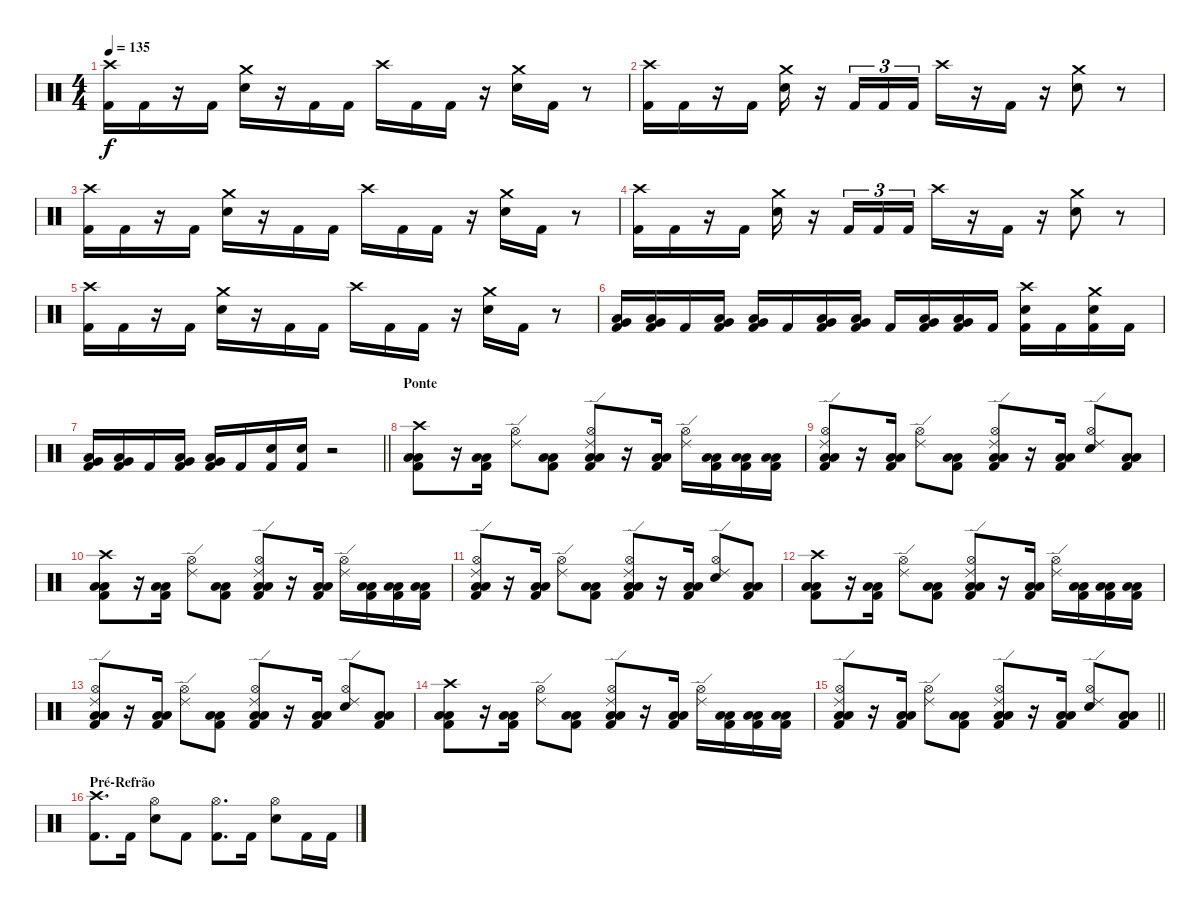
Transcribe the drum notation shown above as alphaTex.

\track "" {instrument percussion}
\staff {score}
\articulation defaults
\ts (4 4)
\tempo 135
\clef neutral
\ks c
("Crash high (hit)" "Kick (hit) 2").16{dy f} "Kick (hit) 2".16 r.16 "Kick (hit) 2".16 ("Crash medium (hit)" "Electric Snare (hit)").16 r.16 "Kick (hit) 2".16 "Kick (hit) 2".16 "Crash high (hit)".16 "Kick (hit) 2".16 "Kick (hit) 2".16 r.16 ("Crash medium (hit)" "Electric Snare (hit)").16 "Kick (hit) 2".16 r.8 |
("Crash high (hit)" "Kick (hit) 2").16 "Kick (hit) 2".16 r.16 "Kick (hit) 2".16 ("Crash medium (hit)" "Electric Snare (hit)").16 r.16 "Kick (hit) 2".16{tu (3 2)} "Kick (hit) 2".16{tu (3 2)} "Kick (hit) 2".16{tu (3 2)} "Crash high (hit)".16 r.16 "Kick (hit) 2".16 r.16 ("Crash medium (hit)" "Electric Snare (hit)").8 r.8 |
("Crash high (hit)" "Kick (hit) 2").16 "Kick (hit) 2".16 r.16 "Kick (hit) 2".16 ("Crash medium (hit)" "Electric Snare (hit)").16 r.16 "Kick (hit) 2".16 "Kick (hit) 2".16 "Crash high (hit)".16 "Kick (hit) 2".16 "Kick (hit) 2".16 r.16 ("Crash medium (hit)" "Electric Snare (hit)").16 "Kick (hit) 2".16 r.8 |
("Crash high (hit)" "Kick (hit) 2").16 "Kick (hit) 2".16 r.16 "Kick (hit) 2".16 ("Crash medium (hit)" "Electric Snare (hit)").16 r.16 "Kick (hit) 2".16{tu (3 2)} "Kick (hit) 2".16{tu (3 2)} "Kick (hit) 2".16{tu (3 2)} "Crash high (hit)".16 r.16 "Kick (hit) 2".16 r.16 ("Crash medium (hit)" "Electric Snare (hit)").8 r.8 |
("Crash high (hit)" "Kick (hit) 2").16 "Kick (hit) 2".16 r.16 "Kick (hit) 2".16 ("Crash medium (hit)" "Electric Snare (hit)").16 r.16 "Kick (hit) 2".16 "Kick (hit) 2".16 "Crash high (hit)".16 "Kick (hit) 2".16 "Kick (hit) 2".16 r.16 ("Crash medium (hit)" "Electric Snare (hit)").16 "Kick (hit) 2".16 r.8 |
("Very Low Tom (hit)" "Low Floor Tom (hit)" "Kick (hit) 2").16 ("Very Low Tom (hit)" "Low Floor Tom (hit)" "Kick (hit) 2").16 "Kick (hit) 2".16 ("Very Low Tom (hit)" "Low Floor Tom (hit)" "Kick (hit) 2").16 ("Very Low Tom (hit)" "Low Floor Tom (hit)" "Kick (hit) 2").16 "Kick (hit) 2".16 ("Very Low Tom (hit)" "Low Floor Tom (hit)" "Kick (hit) 2").16 ("Very Low Tom (hit)" "Low Floor Tom (hit)" "Kick (hit) 2").16 "Kick (hit) 2".16 ("Very Low Tom (hit)" "Low Floor Tom (hit)" "Kick (hit) 2").16 ("Very Low Tom (hit)" "Low Floor Tom (hit)" "Kick (hit) 2").16 "Kick (hit) 2".16 ("Crash high (hit)" "Electric Snare (hit)" "Kick (hit) 2").16 "Kick (hit) 2".16 ("Crash medium (hit)" "Electric Snare (hit)" "Kick (hit) 2").16 "Kick (hit) 2".16 |
\barLineRight lightlight
("Very Low Tom (hit)" "Low Floor Tom (hit)" "Kick (hit) 2").16 ("Very Low Tom (hit)" "Low Floor Tom (hit)" "Kick (hit) 2").16 "Kick (hit) 2".16 ("Very Low Tom (hit)" "Low Floor Tom (hit)" "Kick (hit) 2").16 ("Very Low Tom (hit)" "Low Floor Tom (hit)" "Kick (hit) 2").16 "Kick (hit) 2".16 ("Electric Snare (hit)" "Kick (hit) 2").16 ("Electric Snare (hit)" "Kick (hit) 2").16 r.2 |
\section ("" "Ponte")
("Crash high (hit)" "Low Floor Tom (hit)" "Low Tom (hit)" "Kick (hit) 2").8 r.16 ("Low Floor Tom (hit)" "Low Tom (hit)" "Kick (hit) 2").16 ("Hi-Hat (open)" "Ride (edge) 2").8 ("Low Floor Tom (hit)" "Low Tom (hit)" "Kick (hit) 2").8 ("Hi-Hat (open)" "Ride (edge) 2" "Low Floor Tom (hit)" "Low Tom (hit)" "Kick (hit) 2").8 r.16 ("Low Floor Tom (hit)" "Low Tom (hit)" "Kick (hit) 2").16 ("Hi-Hat (open)" "Ride (edge) 2").16 ("Low Floor Tom (hit)" "Low Tom (hit)" "Kick (hit) 2").16 ("Low Floor Tom (hit)" "Low Tom (hit)" "Kick (hit) 2").16 ("Low Floor Tom (hit)" "Low Tom (hit)" "Kick (hit) 2").16 |
("Hi-Hat (open)" "Ride (edge) 2" "Low Floor Tom (hit)" "Low Tom (hit)" "Kick (hit) 2").8 r.16 ("Low Floor Tom (hit)" "Low Tom (hit)" "Kick (hit) 2").16 ("Hi-Hat (open)" "Ride (edge) 2").8 ("Low Floor Tom (hit)" "Low Tom (hit)" "Kick (hit) 2").8 ("Hi-Hat (open)" "Ride (edge) 2" "Low Floor Tom (hit)" "Low Tom (hit)" "Kick (hit) 2").8 r.16 ("Low Floor Tom (hit)" "Low Tom (hit)" "Kick (hit) 2").16 ("Hi-Hat (open)" "Ride (edge) 2" "Electric Snare (hit)").8 ("Low Floor Tom (hit)" "Low Tom (hit)" "Kick (hit) 2").8 |
("Crash high (hit)" "Low Floor Tom (hit)" "Low Tom (hit)" "Kick (hit) 2").8 r.16 ("Low Floor Tom (hit)" "Low Tom (hit)" "Kick (hit) 2").16 ("Hi-Hat (open)" "Ride (edge) 2").8 ("Low Floor Tom (hit)" "Low Tom (hit)" "Kick (hit) 2").8 ("Hi-Hat (open)" "Ride (edge) 2" "Low Floor Tom (hit)" "Low Tom (hit)" "Kick (hit) 2").8 r.16 ("Low Floor Tom (hit)" "Low Tom (hit)" "Kick (hit) 2").16 ("Hi-Hat (open)" "Ride (edge) 2").16 ("Low Floor Tom (hit)" "Low Tom (hit)" "Kick (hit) 2").16 ("Low Floor Tom (hit)" "Low Tom (hit)" "Kick (hit) 2").16 ("Low Floor Tom (hit)" "Low Tom (hit)" "Kick (hit) 2").16 |
("Hi-Hat (open)" "Ride (edge) 2" "Low Floor Tom (hit)" "Low Tom (hit)" "Kick (hit) 2").8 r.16 ("Low Floor Tom (hit)" "Low Tom (hit)" "Kick (hit) 2").16 ("Hi-Hat (open)" "Ride (edge) 2").8 ("Low Floor Tom (hit)" "Low Tom (hit)" "Kick (hit) 2").8 ("Hi-Hat (open)" "Ride (edge) 2" "Low Floor Tom (hit)" "Low Tom (hit)" "Kick (hit) 2").8 r.16 ("Low Floor Tom (hit)" "Low Tom (hit)" "Kick (hit) 2").16 ("Hi-Hat (open)" "Ride (edge) 2" "Electric Snare (hit)").8 ("Low Floor Tom (hit)" "Low Tom (hit)" "Kick (hit) 2").8 |
("Crash high (hit)" "Low Floor Tom (hit)" "Low Tom (hit)" "Kick (hit) 2").8 r.16 ("Low Floor Tom (hit)" "Low Tom (hit)" "Kick (hit) 2").16 ("Hi-Hat (open)" "Ride (edge) 2").8 ("Low Floor Tom (hit)" "Low Tom (hit)" "Kick (hit) 2").8 ("Hi-Hat (open)" "Ride (edge) 2" "Low Floor Tom (hit)" "Low Tom (hit)" "Kick (hit) 2").8 r.16 ("Low Floor Tom (hit)" "Low Tom (hit)" "Kick (hit) 2").16 ("Hi-Hat (open)" "Ride (edge) 2").16 ("Low Floor Tom (hit)" "Low Tom (hit)" "Kick (hit) 2").16 ("Low Floor Tom (hit)" "Low Tom (hit)" "Kick (hit) 2").16 ("Low Floor Tom (hit)" "Low Tom (hit)" "Kick (hit) 2").16 |
("Hi-Hat (open)" "Ride (edge) 2" "Low Floor Tom (hit)" "Low Tom (hit)" "Kick (hit) 2").8 r.16 ("Low Floor Tom (hit)" "Low Tom (hit)" "Kick (hit) 2").16 ("Hi-Hat (open)" "Ride (edge) 2").8 ("Low Floor Tom (hit)" "Low Tom (hit)" "Kick (hit) 2").8 ("Hi-Hat (open)" "Ride (edge) 2" "Low Floor Tom (hit)" "Low Tom (hit)" "Kick (hit) 2").8 r.16 ("Low Floor Tom (hit)" "Low Tom (hit)" "Kick (hit) 2").16 ("Hi-Hat (open)" "Ride (edge) 2" "Electric Snare (hit)").8 ("Low Floor Tom (hit)" "Low Tom (hit)" "Kick (hit) 2").8 |
("Crash high (hit)" "Low Floor Tom (hit)" "Low Tom (hit)" "Kick (hit) 2").8 r.16 ("Low Floor Tom (hit)" "Low Tom (hit)" "Kick (hit) 2").16 ("Hi-Hat (open)" "Ride (edge) 2").8 ("Low Floor Tom (hit)" "Low Tom (hit)" "Kick (hit) 2").8 ("Hi-Hat (open)" "Ride (edge) 2" "Low Floor Tom (hit)" "Low Tom (hit)" "Kick (hit) 2").8 r.16 ("Low Floor Tom (hit)" "Low Tom (hit)" "Kick (hit) 2").16 ("Hi-Hat (open)" "Ride (edge) 2").16 ("Low Floor Tom (hit)" "Low Tom (hit)" "Kick (hit) 2").16 ("Low Floor Tom (hit)" "Low Tom (hit)" "Kick (hit) 2").16 ("Low Floor Tom (hit)" "Low Tom (hit)" "Kick (hit) 2").16 |
\barLineRight lightlight
("Hi-Hat (open)" "Ride (edge) 2" "Low Floor Tom (hit)" "Low Tom (hit)" "Kick (hit) 2").8 r.16 ("Low Floor Tom (hit)" "Low Tom (hit)" "Kick (hit) 2").16 ("Hi-Hat (open)" "Ride (edge) 2").8 ("Low Floor Tom (hit)" "Low Tom (hit)" "Kick (hit) 2").8 ("Hi-Hat (open)" "Ride (edge) 2" "Low Floor Tom (hit)" "Low Tom (hit)" "Kick (hit) 2").8 r.16 ("Low Floor Tom (hit)" "Low Tom (hit)" "Kick (hit) 2").16 ("Hi-Hat (open)" "Ride (edge) 2" "Electric Snare (hit)").8 ("Low Floor Tom (hit)" "Low Tom (hit)" "Kick (hit) 2").8 |
\section ("" "Pré-Refrão")
("Crash high (hit)" "Kick (hit) 2").8{d} "Kick (hit) 2".16 ("Hi-Hat (open)" "Electric Snare (hit)").8 "Kick (hit) 2".8 ("Hi-Hat (open)" "Kick (hit) 2").8{d} "Kick (hit) 2".16 ("Hi-Hat (open)" "Electric Snare (hit)").8 "Kick (hit) 2".16 "Kick (hit) 2".16
